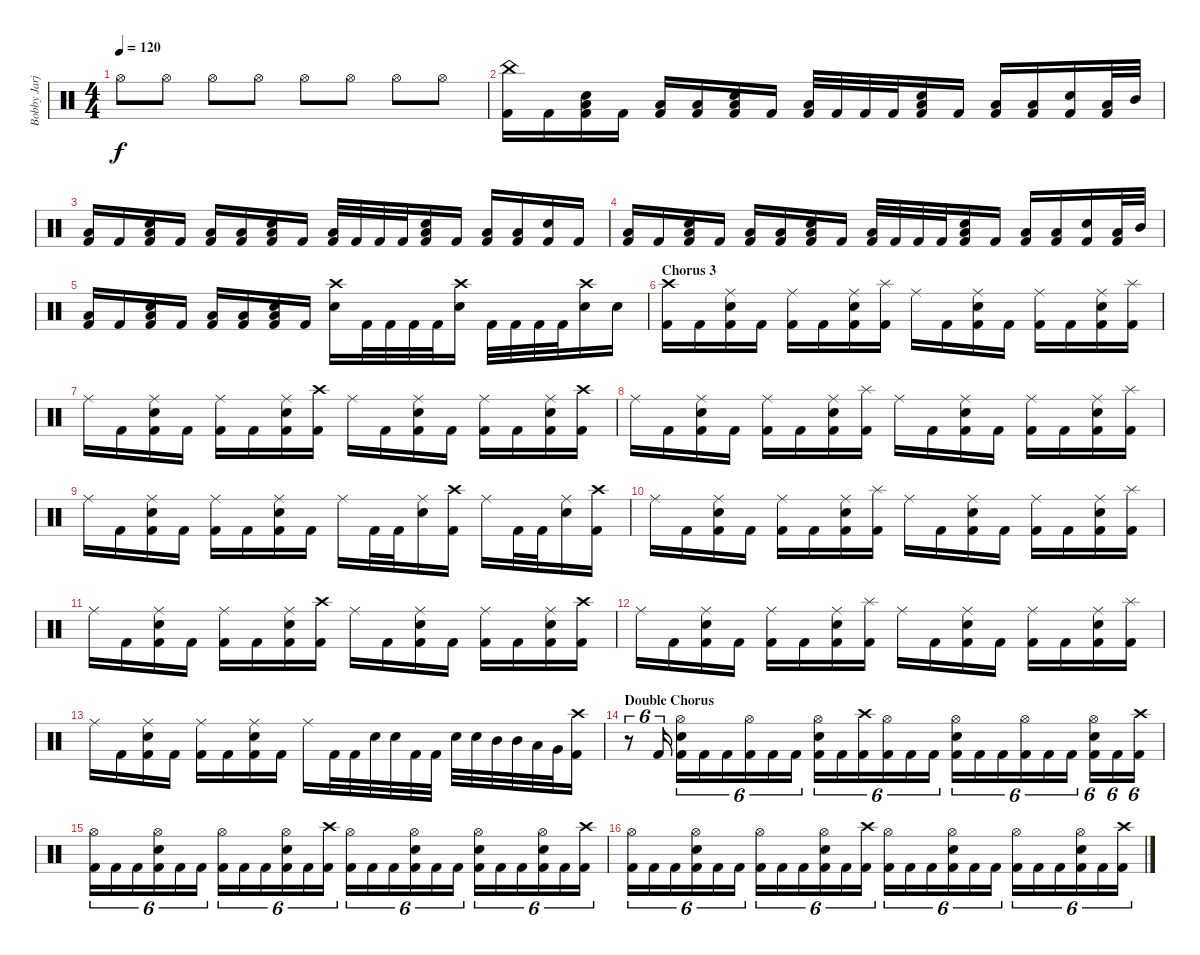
\track ("Bobby Jarjombek" "Bobby Jarj") {instrument percussion}
\staff {score}
\articulation defaults
\ts (4 4)
\tempo 120
\clef neutral
\ks c "Hi-Hat (open)".8{dy f} "Hi-Hat (open)".8 "Hi-Hat (open)".8 "Hi-Hat (open)".8 "Hi-Hat (open)".8 "Hi-Hat (open)".8 "Hi-Hat (open)".8 "Hi-Hat (open)".8
|
("Kick (hit) 2" "China (hit)").16 "Kick (hit) 2".16 ("Kick (hit) 2" "Electric Snare (hit)" "Low Tom (hit)").16 "Kick (hit) 2".16 ("Kick (hit) 2" "Low Tom (hit)").16 ("Kick (hit) 2" "Low Tom (hit)").16 ("Kick (hit) 2" "Electric Snare (hit)" "Low Tom (hit)").16 "Kick (hit) 2".16 ("Kick (hit) 2" "Low Tom (hit)").32 "Kick (hit) 2".32 "Kick (hit) 2".32 "Kick (hit) 2".32 ("Kick (hit) 2" "Electric Snare (hit)" "Low Tom (hit)").16 "Kick (hit) 2".16 ("Kick (hit) 2" "Low Tom (hit)").16 ("Kick (hit) 2" "Low Tom (hit)").16 ("Kick (hit) 2" "Electric Snare (hit)").16 ("Kick (hit) 2" "Low Tom (hit)").32 "Mid Tom (hit)".32 |
("Kick (hit) 2" "Low Tom (hit)").16 "Kick (hit) 2".16 ("Kick (hit) 2" "Electric Snare (hit)" "Low Tom (hit)").16 "Kick (hit) 2".16 ("Kick (hit) 2" "Low Tom (hit)").16 ("Kick (hit) 2" "Low Tom (hit)").16 ("Kick (hit) 2" "Electric Snare (hit)" "Low Tom (hit)").16 "Kick (hit) 2".16 ("Kick (hit) 2" "Low Tom (hit)").32 "Kick (hit) 2".32 "Kick (hit) 2".32 "Kick (hit) 2".32 ("Kick (hit) 2" "Electric Snare (hit)" "Low Tom (hit)").16 "Kick (hit) 2".16 ("Kick (hit) 2" "Low Tom (hit)").16 ("Kick (hit) 2" "Low Tom (hit)").16 ("Kick (hit) 2" "Electric Snare (hit)").16 "Kick (hit) 2".16 |
("Kick (hit) 2" "Low Tom (hit)").16 "Kick (hit) 2".16 ("Kick (hit) 2" "Electric Snare (hit)" "Low Tom (hit)").16 "Kick (hit) 2".16 ("Kick (hit) 2" "Low Tom (hit)").16 ("Kick (hit) 2" "Low Tom (hit)").16 ("Kick (hit) 2" "Electric Snare (hit)" "Low Tom (hit)").16 "Kick (hit) 2".16 ("Kick (hit) 2" "Low Tom (hit)").32 "Kick (hit) 2".32 "Kick (hit) 2".32 "Kick (hit) 2".32 ("Kick (hit) 2" "Electric Snare (hit)" "Low Tom (hit)").16 "Kick (hit) 2".16 ("Kick (hit) 2" "Low Tom (hit)").16 ("Kick (hit) 2" "Low Tom (hit)").16 ("Kick (hit) 2" "Electric Snare (hit)").16 ("Kick (hit) 2" "Low Tom (hit)").32 "Mid Tom (hit)".32 |
("Kick (hit) 2" "Low Tom (hit)").16 "Kick (hit) 2".16 ("Kick (hit) 2" "Electric Snare (hit)" "Low Tom (hit)").16 "Kick (hit) 2".16 ("Kick (hit) 2" "Low Tom (hit)").16 ("Kick (hit) 2" "Low Tom (hit)").16 ("Kick (hit) 2" "Electric Snare (hit)" "Low Tom (hit)").16 "Kick (hit) 2".16 ("Crash high (hit)" "Electric Snare (hit)").16 "Kick (hit) 2".32 "Kick (hit) 2".32 "Kick (hit) 2".32 "Kick (hit) 2".32 ("Crash high (hit)" "Electric Snare (hit)").16 "Kick (hit) 2".32 "Kick (hit) 2".32 "Kick (hit) 2".32 "Kick (hit) 2".32 ("Crash high (hit)" "Electric Snare (hit)").16 "Electric Snare (hit)".16 |
\section ("" "Chorus 3")
("Kick (hit) 2" "Crash high (hit)").16 "Kick (hit) 2".16 ("Kick (hit) 2" "Ride (middle)" "Electric Snare (hit)").16 "Kick (hit) 2".16 ("Kick (hit) 2" "Ride (middle)").16 "Kick (hit) 2".16 ("Kick (hit) 2" "Ride (middle)" "Electric Snare (hit)").16 ("Kick (hit) 2" "Splash (hit)").16 "Ride (middle)".16 "Kick (hit) 2".16 ("Kick (hit) 2" "Ride (middle)" "Electric Snare (hit)").16 "Kick (hit) 2".16 ("Kick (hit) 2" "Ride (middle)").16 "Kick (hit) 2".16 ("Kick (hit) 2" "Ride (middle)" "Electric Snare (hit)").16 ("Kick (hit) 2" "Splash (hit)").16 |
"Ride (middle)".16 "Kick (hit) 2".16 ("Kick (hit) 2" "Ride (middle)" "Electric Snare (hit)").16 "Kick (hit) 2".16 ("Kick (hit) 2" "Ride (middle)").16 "Kick (hit) 2".16 ("Kick (hit) 2" "Ride (middle)" "Electric Snare (hit)").16 ("Kick (hit) 2" "Crash high (hit)").16 "Ride (middle)".16 "Kick (hit) 2".16 ("Kick (hit) 2" "Ride (middle)" "Electric Snare (hit)").16 "Kick (hit) 2".16 ("Kick (hit) 2" "Ride (middle)").16 "Kick (hit) 2".16 ("Kick (hit) 2" "Ride (middle)" "Electric Snare (hit)").16 ("Kick (hit) 2" "Crash high (hit)").16 |
"Ride (middle)".16 "Kick (hit) 2".16 ("Kick (hit) 2" "Ride (middle)" "Electric Snare (hit)").16 "Kick (hit) 2".16 ("Kick (hit) 2" "Ride (middle)").16 "Kick (hit) 2".16 ("Kick (hit) 2" "Ride (middle)" "Electric Snare (hit)").16 ("Kick (hit) 2" "Splash (hit)").16 "Ride (middle)".16 "Kick (hit) 2".16 ("Kick (hit) 2" "Ride (middle)" "Electric Snare (hit)").16 "Kick (hit) 2".16 ("Kick (hit) 2" "Ride (middle)").16 "Kick (hit) 2".16 ("Kick (hit) 2" "Ride (middle)" "Electric Snare (hit)").16 ("Kick (hit) 2" "Splash (hit)").16 |
"Ride (middle)".16 "Kick (hit) 2".16 ("Kick (hit) 2" "Ride (middle)" "Electric Snare (hit)").16 "Kick (hit) 2".16 ("Kick (hit) 2" "Ride (middle)").16 "Kick (hit) 2".16 ("Kick (hit) 2" "Ride (middle)" "Electric Snare (hit)").16 "Kick (hit) 2".16 "Ride (middle)".16 "Kick (hit) 2".32 "Kick (hit) 2".32 ("Ride (middle)" "Electric Snare (hit)").16 ("Kick (hit) 2" "Crash high (hit)").16 "Ride (middle)".16 "Kick (hit) 2".32 "Kick (hit) 2".32 ("Ride (middle)" "Electric Snare (hit)").16 ("Kick (hit) 2" "Crash high (hit)").16 |
"Ride (middle)".16 "Kick (hit) 2".16 ("Kick (hit) 2" "Ride (middle)" "Electric Snare (hit)").16 "Kick (hit) 2".16 ("Kick (hit) 2" "Ride (middle)").16 "Kick (hit) 2".16 ("Kick (hit) 2" "Ride (middle)" "Electric Snare (hit)").16 ("Kick (hit) 2" "Splash (hit)").16 "Ride (middle)".16 "Kick (hit) 2".16 ("Kick (hit) 2" "Ride (middle)" "Electric Snare (hit)").16 "Kick (hit) 2".16 ("Kick (hit) 2" "Ride (middle)").16 "Kick (hit) 2".16 ("Kick (hit) 2" "Ride (middle)" "Electric Snare (hit)").16 ("Kick (hit) 2" "Splash (hit)").16 |
"Ride (middle)".16 "Kick (hit) 2".16 ("Kick (hit) 2" "Ride (middle)" "Electric Snare (hit)").16 "Kick (hit) 2".16 ("Kick (hit) 2" "Ride (middle)").16 "Kick (hit) 2".16 ("Kick (hit) 2" "Ride (middle)" "Electric Snare (hit)").16 ("Kick (hit) 2" "Crash high (hit)").16 "Ride (middle)".16 "Kick (hit) 2".16 ("Kick (hit) 2" "Ride (middle)" "Electric Snare (hit)").16 "Kick (hit) 2".16 ("Kick (hit) 2" "Ride (middle)").16 "Kick (hit) 2".16 ("Kick (hit) 2" "Ride (middle)" "Electric Snare (hit)").16 ("Kick (hit) 2" "Crash high (hit)").16 |
"Ride (middle)".16 "Kick (hit) 2".16 ("Kick (hit) 2" "Ride (middle)" "Electric Snare (hit)").16 "Kick (hit) 2".16 ("Kick (hit) 2" "Ride (middle)").16 "Kick (hit) 2".16 ("Kick (hit) 2" "Ride (middle)" "Electric Snare (hit)").16 ("Kick (hit) 2" "Splash (hit)").16 "Ride (middle)".16 "Kick (hit) 2".16 ("Kick (hit) 2" "Ride (middle)" "Electric Snare (hit)").16 "Kick (hit) 2".16 ("Kick (hit) 2" "Ride (middle)").16 "Kick (hit) 2".16 ("Kick (hit) 2" "Ride (middle)" "Electric Snare (hit)").16 ("Kick (hit) 2" "Splash (hit)").16 |
"Ride (middle)".16 "Kick (hit) 2".16 ("Kick (hit) 2" "Ride (middle)" "Electric Snare (hit)").16 "Kick (hit) 2".16 ("Kick (hit) 2" "Ride (middle)").16 "Kick (hit) 2".16 ("Kick (hit) 2" "Ride (middle)" "Electric Snare (hit)").16 "Kick (hit) 2".16 "Ride (middle)".16 "Kick (hit) 2".32 "Kick (hit) 2".32 "Electric Snare (hit)".32 "Electric Snare (hit)".32 "Kick (hit) 2".32 "Kick (hit) 2".32 "Electric Snare (hit)".32 "Electric Snare (hit)".32 "Mid Tom (hit)".32 "Mid Tom (hit)".32 "Low Tom (hit)".32 "Very Low Tom (hit)".32 ("Kick (hit) 2" "Crash high (hit)").16 |
\section ("" "Double Chorus")
r.8{tu (6 4)} "Kick (hit) 2".16{tu (6 4)} ("Kick (hit) 2" "Hi-Hat (open)" "Electric Snare (hit)").16{tu (6 4)} "Kick (hit) 2".16{tu (6 4)} "Kick (hit) 2".16{tu (6 4)} ("Kick (hit) 2" "Hi-Hat (open)").16{tu (6 4)} "Kick (hit) 2".16{tu (6 4)} "Kick (hit) 2".16{tu (6 4)} ("Kick (hit) 2" "Hi-Hat (open)" "Electric Snare (hit)").16{tu (6 4)} "Kick (hit) 2".16{tu (6 4)} ("Kick (hit) 2" "Crash high (hit)").16{tu (6 4)} ("Kick (hit) 2" "Hi-Hat (open)").16{tu (6 4)} "Kick (hit) 2".16{tu (6 4)} "Kick (hit) 2".16{tu (6 4)} ("Kick (hit) 2" "Hi-Hat (open)" "Electric Snare (hit)").16{tu (6 4)} "Kick (hit) 2".16{tu (6 4)} "Kick (hit) 2".16{tu (6 4)} ("Kick (hit) 2" "Hi-Hat (open)").16{tu (6 4)} "Kick (hit) 2".16{tu (6 4)} "Kick (hit) 2".16{tu (6 4)} ("Kick (hit) 2" "Hi-Hat (open)" "Electric Snare (hit)").16{tu (6 4)} "Kick (hit) 2".16{tu (6 4)} ("Kick (hit) 2" "Crash high (hit)").16{tu (6 4)} |
("Kick (hit) 2" "Hi-Hat (open)").16{tu (6 4)} "Kick (hit) 2".16{tu (6 4)} "Kick (hit) 2".16{tu (6 4)} ("Kick (hit) 2" "Hi-Hat (open)" "Electric Snare (hit)").16{tu (6 4)} "Kick (hit) 2".16{tu (6 4)} "Kick (hit) 2".16{tu (6 4)} ("Kick (hit) 2" "Hi-Hat (open)").16{tu (6 4)} "Kick (hit) 2".16{tu (6 4)} "Kick (hit) 2".16{tu (6 4)} ("Kick (hit) 2" "Hi-Hat (open)" "Electric Snare (hit)").16{tu (6 4)} "Kick (hit) 2".16{tu (6 4)} ("Kick (hit) 2" "Crash high (hit)").16{tu (6 4)} ("Kick (hit) 2" "Hi-Hat (open)").16{tu (6 4)} "Kick (hit) 2".16{tu (6 4)} "Kick (hit) 2".16{tu (6 4)} ("Kick (hit) 2" "Hi-Hat (open)" "Electric Snare (hit)").16{tu (6 4)} "Kick (hit) 2".16{tu (6 4)} "Kick (hit) 2".16{tu (6 4)} ("Kick (hit) 2" "Hi-Hat (open)" "Electric Snare (hit)").16{tu (6 4)} "Kick (hit) 2".16{tu (6 4)} "Kick (hit) 2".16{tu (6 4)} ("Kick (hit) 2" "Hi-Hat (open)" "Electric Snare (hit)").16{tu (6 4)} "Kick (hit) 2".16{tu (6 4)} ("Kick (hit) 2" "Crash high (hit)").16{tu (6 4)} |
("Kick (hit) 2" "Hi-Hat (open)").16{tu (6 4)} "Kick (hit) 2".16{tu (6 4)} "Kick (hit) 2".16{tu (6 4)} ("Kick (hit) 2" "Hi-Hat (open)" "Electric Snare (hit)").16{tu (6 4)} "Kick (hit) 2".16{tu (6 4)} "Kick (hit) 2".16{tu (6 4)} ("Kick (hit) 2" "Hi-Hat (open)").16{tu (6 4)} "Kick (hit) 2".16{tu (6 4)} "Kick (hit) 2".16{tu (6 4)} ("Kick (hit) 2" "Hi-Hat (open)" "Electric Snare (hit)").16{tu (6 4)} "Kick (hit) 2".16{tu (6 4)} ("Kick (hit) 2" "Crash high (hit)").16{tu (6 4)} ("Kick (hit) 2" "Hi-Hat (open)").16{tu (6 4)} "Kick (hit) 2".16{tu (6 4)} "Kick (hit) 2".16{tu (6 4)} ("Kick (hit) 2" "Hi-Hat (open)" "Electric Snare (hit)").16{tu (6 4)} "Kick (hit) 2".16{tu (6 4)} "Kick (hit) 2".16{tu (6 4)} ("Kick (hit) 2" "Hi-Hat (open)").16{tu (6 4)} "Kick (hit) 2".16{tu (6 4)} "Kick (hit) 2".16{tu (6 4)} ("Kick (hit) 2" "Hi-Hat (open)" "Electric Snare (hit)").16{tu (6 4)} "Kick (hit) 2".16{tu (6 4)} ("Kick (hit) 2" "Crash high (hit)").16{tu (6 4)}
